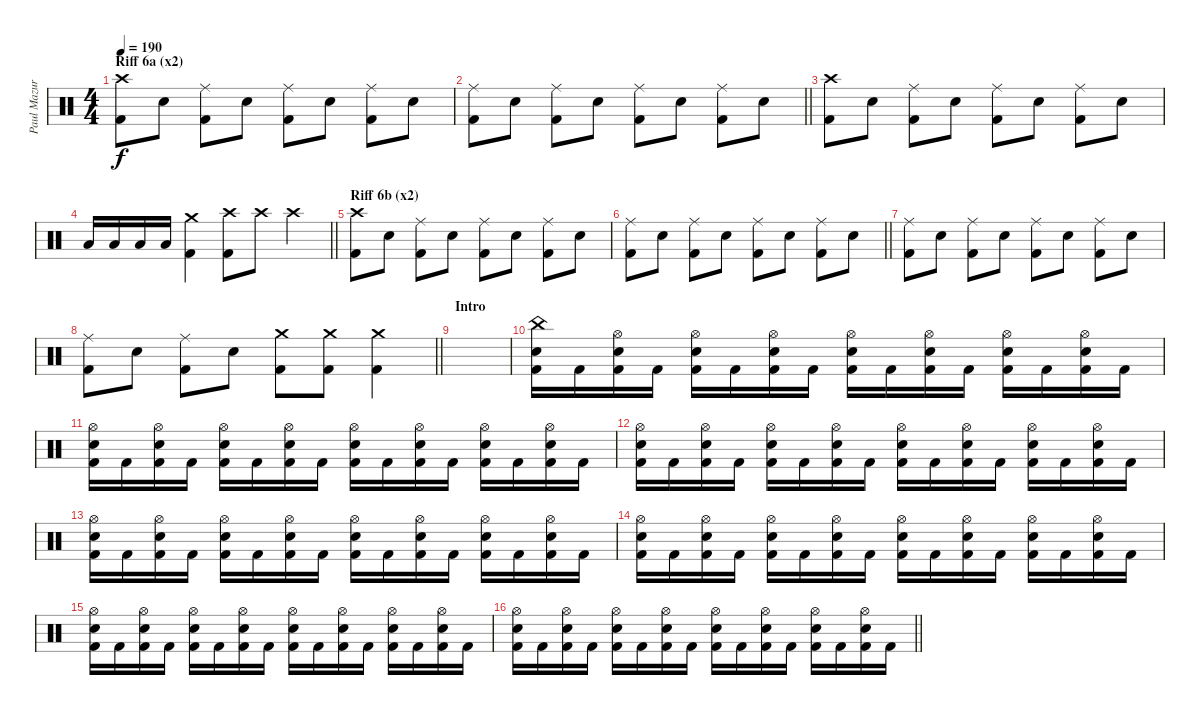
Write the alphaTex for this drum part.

\track ("Paul Mazurkiewicz" "Paul Mazur") {instrument percussion}
\staff {score}
\articulation defaults
\ts (4 4)
\section ("" "Riff 6a (x2)")
\tempo 190
\clef neutral
\ks c
("Crash high (hit)" "Kick (hit) 2").8{dy f} "Electric Snare (hit)".8 ("Ride (middle)" "Kick (hit) 2").8 "Electric Snare (hit)".8 ("Ride (middle)" "Kick (hit) 2").8 "Electric Snare (hit)".8 ("Ride (middle)" "Kick (hit) 2").8 "Electric Snare (hit)".8 |
\barLineRight lightlight
("Ride (middle)" "Kick (hit) 2").8 "Electric Snare (hit)".8 ("Ride (middle)" "Kick (hit) 2").8 "Electric Snare (hit)".8 ("Ride (middle)" "Kick (hit) 2").8 "Electric Snare (hit)".8 ("Ride (middle)" "Kick (hit) 2").8 "Electric Snare (hit)".8 |
("Crash high (hit)" "Kick (hit) 2").8 "Electric Snare (hit)".8 ("Ride (middle)" "Kick (hit) 2").8 "Electric Snare (hit)".8 ("Ride (middle)" "Kick (hit) 2").8 "Electric Snare (hit)".8 ("Ride (middle)" "Kick (hit) 2").8 "Electric Snare (hit)".8 |
\barLineRight lightlight "Low Tom (hit)".16 "Low Tom (hit)".16 "Low Tom (hit)".16 "Low Tom (hit)".16
("Crash medium (hit)" "Kick (hit) 2").4 ("Crash high (hit)" "Kick (hit) 2").8 "Crash high (hit)".8 "Crash high (hit)".4 |
\section ("" "Riff 6b (x2)")
("Crash high (hit)" "Kick (hit) 2").8 "Electric Snare (hit)".8 ("Ride (middle)" "Kick (hit) 2").8 "Electric Snare (hit)".8 ("Ride (middle)" "Kick (hit) 2").8 "Electric Snare (hit)".8 ("Ride (middle)" "Kick (hit) 2").8 "Electric Snare (hit)".8 |
\barLineRight lightlight
("Ride (middle)" "Kick (hit) 2").8 "Electric Snare (hit)".8 ("Ride (middle)" "Kick (hit) 2").8 "Electric Snare (hit)".8 ("Ride (middle)" "Kick (hit) 2").8 "Electric Snare (hit)".8 ("Ride (middle)" "Kick (hit) 2").8 "Electric Snare (hit)".8 |
("Ride (middle)" "Kick (hit) 2").8 "Electric Snare (hit)".8 ("Ride (middle)" "Kick (hit) 2").8 "Electric Snare (hit)".8 ("Ride (middle)" "Kick (hit) 2").8 "Electric Snare (hit)".8 ("Ride (middle)" "Kick (hit) 2").8 "Electric Snare (hit)".8 |
\barLineRight lightlight
("Ride (middle)" "Kick (hit) 2").8 "Electric Snare (hit)".8 ("Ride (middle)" "Kick (hit) 2").8 "Electric Snare (hit)".8 ("Crash medium (hit)" "Kick (hit) 2").8 ("Crash medium (hit)" "Kick (hit) 2").8 ("Crash medium (hit)" "Kick (hit) 2").4 |
\section ("" "Intro")
|
("China (hit)" "Electric Snare (hit)" "Kick (hit) 2").16 "Kick (hit) 2".16 ("Hi-Hat (open)" "Electric Snare (hit)" "Kick (hit) 2").16 "Kick (hit) 2".16 ("Hi-Hat (open)" "Electric Snare (hit)" "Kick (hit) 2").16 "Kick (hit) 2".16 ("Hi-Hat (open)" "Electric Snare (hit)" "Kick (hit) 2").16 "Kick (hit) 2".16 ("Hi-Hat (open)" "Electric Snare (hit)" "Kick (hit) 2").16 "Kick (hit) 2".16 ("Hi-Hat (open)" "Electric Snare (hit)" "Kick (hit) 2").16 "Kick (hit) 2".16 ("Hi-Hat (open)" "Electric Snare (hit)" "Kick (hit) 2").16 "Kick (hit) 2".16 ("Hi-Hat (open)" "Electric Snare (hit)" "Kick (hit) 2").16 "Kick (hit) 2".16 |
("Hi-Hat (open)" "Electric Snare (hit)" "Kick (hit) 2").16 "Kick (hit) 2".16 ("Hi-Hat (open)" "Electric Snare (hit)" "Kick (hit) 2").16 "Kick (hit) 2".16 ("Hi-Hat (open)" "Electric Snare (hit)" "Kick (hit) 2").16 "Kick (hit) 2".16 ("Hi-Hat (open)" "Electric Snare (hit)" "Kick (hit) 2").16 "Kick (hit) 2".16 ("Hi-Hat (open)" "Electric Snare (hit)" "Kick (hit) 2").16 "Kick (hit) 2".16 ("Hi-Hat (open)" "Electric Snare (hit)" "Kick (hit) 2").16 "Kick (hit) 2".16 ("Hi-Hat (open)" "Electric Snare (hit)" "Kick (hit) 2").16 "Kick (hit) 2".16 ("Hi-Hat (open)" "Electric Snare (hit)" "Kick (hit) 2").16 "Kick (hit) 2".16 |
("Hi-Hat (open)" "Electric Snare (hit)" "Kick (hit) 2").16 "Kick (hit) 2".16 ("Hi-Hat (open)" "Electric Snare (hit)" "Kick (hit) 2").16 "Kick (hit) 2".16 ("Hi-Hat (open)" "Electric Snare (hit)" "Kick (hit) 2").16 "Kick (hit) 2".16 ("Hi-Hat (open)" "Electric Snare (hit)" "Kick (hit) 2").16 "Kick (hit) 2".16 ("Hi-Hat (open)" "Electric Snare (hit)" "Kick (hit) 2").16 "Kick (hit) 2".16 ("Hi-Hat (open)" "Electric Snare (hit)" "Kick (hit) 2").16 "Kick (hit) 2".16 ("Hi-Hat (open)" "Electric Snare (hit)" "Kick (hit) 2").16 "Kick (hit) 2".16 ("Hi-Hat (open)" "Electric Snare (hit)" "Kick (hit) 2").16 "Kick (hit) 2".16 |
("Hi-Hat (open)" "Electric Snare (hit)" "Kick (hit) 2").16 "Kick (hit) 2".16 ("Hi-Hat (open)" "Electric Snare (hit)" "Kick (hit) 2").16 "Kick (hit) 2".16 ("Hi-Hat (open)" "Electric Snare (hit)" "Kick (hit) 2").16 "Kick (hit) 2".16 ("Hi-Hat (open)" "Electric Snare (hit)" "Kick (hit) 2").16 "Kick (hit) 2".16 ("Hi-Hat (open)" "Electric Snare (hit)" "Kick (hit) 2").16 "Kick (hit) 2".16 ("Hi-Hat (open)" "Electric Snare (hit)" "Kick (hit) 2").16 "Kick (hit) 2".16 ("Hi-Hat (open)" "Electric Snare (hit)" "Kick (hit) 2").16 "Kick (hit) 2".16 ("Hi-Hat (open)" "Electric Snare (hit)" "Kick (hit) 2").16 "Kick (hit) 2".16 |
("Hi-Hat (open)" "Electric Snare (hit)" "Kick (hit) 2").16 "Kick (hit) 2".16 ("Hi-Hat (open)" "Electric Snare (hit)" "Kick (hit) 2").16 "Kick (hit) 2".16 ("Hi-Hat (open)" "Electric Snare (hit)" "Kick (hit) 2").16 "Kick (hit) 2".16 ("Hi-Hat (open)" "Electric Snare (hit)" "Kick (hit) 2").16 "Kick (hit) 2".16 ("Hi-Hat (open)" "Electric Snare (hit)" "Kick (hit) 2").16 "Kick (hit) 2".16 ("Hi-Hat (open)" "Electric Snare (hit)" "Kick (hit) 2").16 "Kick (hit) 2".16 ("Hi-Hat (open)" "Electric Snare (hit)" "Kick (hit) 2").16 "Kick (hit) 2".16 ("Hi-Hat (open)" "Electric Snare (hit)" "Kick (hit) 2").16 "Kick (hit) 2".16 |
("Hi-Hat (open)" "Electric Snare (hit)" "Kick (hit) 2").16 "Kick (hit) 2".16 ("Hi-Hat (open)" "Electric Snare (hit)" "Kick (hit) 2").16 "Kick (hit) 2".16 ("Hi-Hat (open)" "Electric Snare (hit)" "Kick (hit) 2").16 "Kick (hit) 2".16 ("Hi-Hat (open)" "Electric Snare (hit)" "Kick (hit) 2").16 "Kick (hit) 2".16 ("Hi-Hat (open)" "Electric Snare (hit)" "Kick (hit) 2").16 "Kick (hit) 2".16 ("Hi-Hat (open)" "Electric Snare (hit)" "Kick (hit) 2").16 "Kick (hit) 2".16 ("Hi-Hat (open)" "Electric Snare (hit)" "Kick (hit) 2").16 "Kick (hit) 2".16 ("Hi-Hat (open)" "Electric Snare (hit)" "Kick (hit) 2").16 "Kick (hit) 2".16 |
\barLineRight lightlight
("Hi-Hat (open)" "Electric Snare (hit)" "Kick (hit) 2").16 "Kick (hit) 2".16 ("Hi-Hat (open)" "Electric Snare (hit)" "Kick (hit) 2").16 "Kick (hit) 2".16 ("Hi-Hat (open)" "Electric Snare (hit)" "Kick (hit) 2").16 "Kick (hit) 2".16 ("Hi-Hat (open)" "Electric Snare (hit)" "Kick (hit) 2").16 "Kick (hit) 2".16 ("Hi-Hat (open)" "Electric Snare (hit)" "Kick (hit) 2").16 "Kick (hit) 2".16 ("Hi-Hat (open)" "Electric Snare (hit)" "Kick (hit) 2").16 "Kick (hit) 2".16 ("Hi-Hat (open)" "Electric Snare (hit)" "Kick (hit) 2").16 "Kick (hit) 2".16 ("Hi-Hat (open)" "Electric Snare (hit)" "Kick (hit) 2").16 "Kick (hit) 2".16
